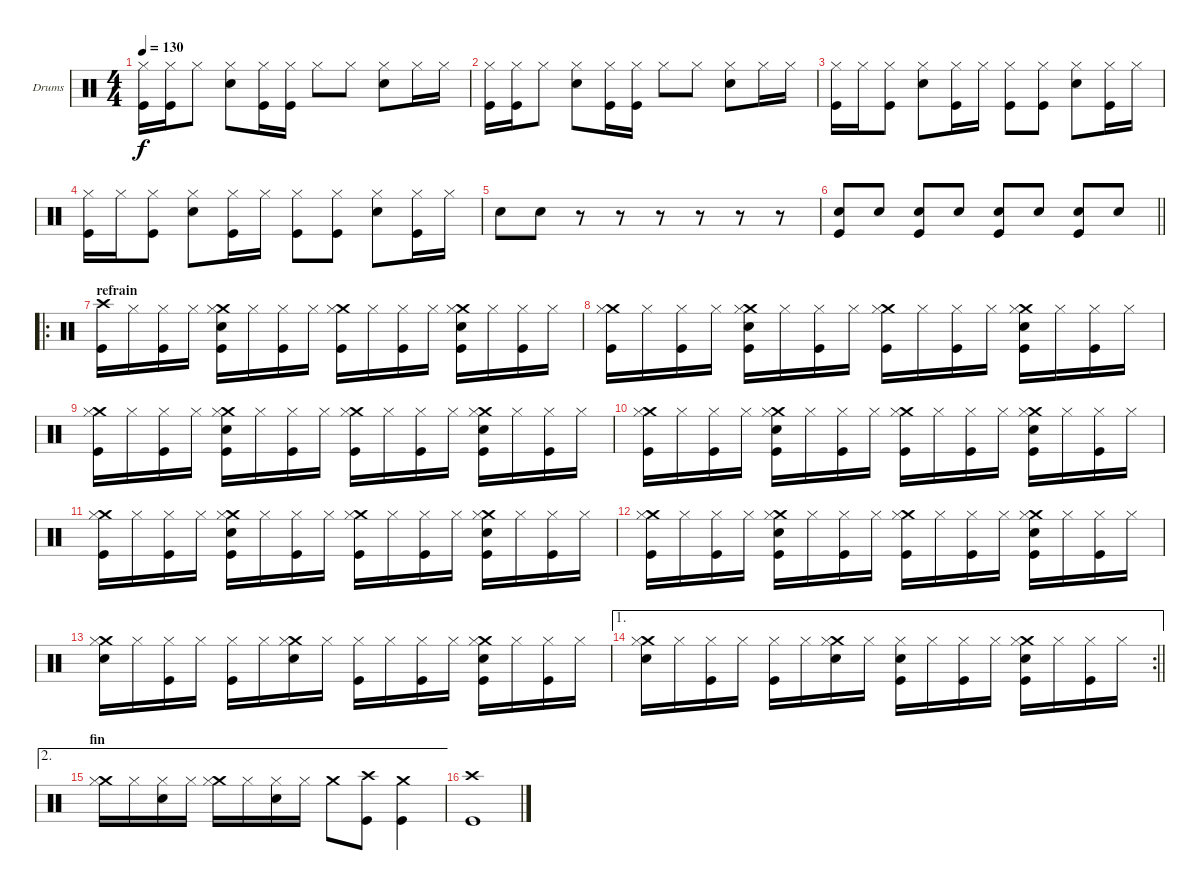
\bracketExtendMode groupsimilarinstruments
\firstSystemTrackNameOrientation horizontal
\otherSystemsTrackNameOrientation horizontal
\track ("Drumkit" "Drums") {instrument percussion}
\staff {score}
\articulation defaults
\ts (4 4)
\tempo 130
\clef neutral
\scale
0.333333
\ks c
("Hi-Hat (closed)" "Kick (hit)").16{dy f} ("Hi-Hat (closed)" "Kick (hit)").16 "Hi-Hat (closed)".8 ("Hi-Hat (closed)" "Snare (hit) 2").8 ("Hi-Hat (closed)" "Kick (hit)").16 ("Hi-Hat (closed)" "Kick (hit)").16 "Hi-Hat (closed)".8 "Hi-Hat (closed)".8 ("Hi-Hat (closed)" "Snare (hit) 2").8 "Hi-Hat (closed)".16 "Hi-Hat (closed)".16 |
\scale
0.333333 ("Hi-Hat (closed)" "Kick (hit)").16 ("Hi-Hat (closed)" "Kick (hit)").16 "Hi-Hat (closed)".8 ("Hi-Hat (closed)" "Snare (hit) 2").8 ("Hi-Hat (closed)" "Kick (hit)").16 ("Hi-Hat (closed)" "Kick (hit)").16 "Hi-Hat (closed)".8 "Hi-Hat (closed)".8 ("Hi-Hat (closed)" "Snare (hit) 2").8 "Hi-Hat (closed)".16 "Hi-Hat (closed)".16 |
\scale
0.333333 ("Hi-Hat (closed)" "Kick (hit)").16 "Hi-Hat (closed)".16 ("Hi-Hat (closed)" "Kick (hit)").8 ("Hi-Hat (closed)" "Snare (hit) 2").8 ("Hi-Hat (closed)" "Kick (hit)").16 "Hi-Hat (closed)".16 ("Hi-Hat (closed)" "Kick (hit)").8 ("Hi-Hat (closed)" "Kick (hit)").8 ("Hi-Hat (closed)" "Snare (hit) 2").8 ("Hi-Hat (closed)" "Kick (hit)").16 "Hi-Hat (closed)".16 |
\scale
0.333333 ("Hi-Hat (closed)" "Kick (hit)").16 "Hi-Hat (closed)".16 ("Hi-Hat (closed)" "Kick (hit)").8 ("Hi-Hat (closed)" "Snare (hit) 2").8 ("Hi-Hat (closed)" "Kick (hit)").16 "Hi-Hat (closed)".16 ("Hi-Hat (closed)" "Kick (hit)").8 ("Hi-Hat (closed)" "Kick (hit)").8 ("Hi-Hat (closed)" "Snare (hit) 2").8 ("Hi-Hat (closed)" "Kick (hit)").16 "Hi-Hat (closed)".16 |
\scale
0.333333 "Snare (hit) 2".8 "Snare (hit) 2".8 r.8 r.8 r.8 r.8 r.8 r.8 |
\scale
0.311111
\barLineRight lightlight
("Snare (hit) 2" "Kick (hit)").8 "Snare (hit) 2".8 ("Snare (hit) 2" "Kick (hit)").8 "Snare (hit) 2".8 ("Snare (hit) 2" "Kick (hit)").8 "Snare (hit) 2".8 ("Snare (hit) 2" "Kick (hit)").8 "Snare (hit) 2".8 |
\ro
\section ("" "refrain")
\scale
0.377778 ("Crash high (hit)" "Kick (hit)").16 "Hi-Hat (closed)".16 ("Hi-Hat (closed)" "Kick (hit)").16 "Hi-Hat (closed)".16 ("Crash medium (hit)" "Hi-Hat (closed)" "Snare (hit) 2" "Kick (hit)").16 "Hi-Hat (closed)".16 ("Hi-Hat (closed)" "Kick (hit)").16 "Hi-Hat (closed)".16 ("Crash medium (hit)" "Hi-Hat (closed)" "Kick (hit)").16 "Hi-Hat (closed)".16 ("Hi-Hat (closed)" "Kick (hit)").16 "Hi-Hat (closed)".16 ("Crash medium (hit)" "Hi-Hat (closed)" "Snare (hit) 2" "Kick (hit)").16 "Hi-Hat (closed)".16 ("Hi-Hat (closed)" "Kick (hit)").16 "Hi-Hat (closed)".16 |
\scale
0.311111 ("Crash medium (hit)" "Hi-Hat (closed)" "Kick (hit)").16 "Hi-Hat (closed)".16 ("Hi-Hat (closed)" "Kick (hit)").16 "Hi-Hat (closed)".16 ("Crash medium (hit)" "Hi-Hat (closed)" "Snare (hit) 2" "Kick (hit)").16 "Hi-Hat (closed)".16 ("Hi-Hat (closed)" "Kick (hit)").16 "Hi-Hat (closed)".16 ("Crash medium (hit)" "Hi-Hat (closed)" "Kick (hit)").16 "Hi-Hat (closed)".16 ("Hi-Hat (closed)" "Kick (hit)").16 "Hi-Hat (closed)".16 ("Crash medium (hit)" "Hi-Hat (closed)" "Snare (hit) 2" "Kick (hit)").16 "Hi-Hat (closed)".16 ("Hi-Hat (closed)" "Kick (hit)").16 "Hi-Hat (closed)".16 |
\scale
0.333333 ("Crash medium (hit)" "Hi-Hat (closed)" "Kick (hit)").16 "Hi-Hat (closed)".16 ("Hi-Hat (closed)" "Kick (hit)").16 "Hi-Hat (closed)".16 ("Crash medium (hit)" "Hi-Hat (closed)" "Snare (hit) 2" "Kick (hit)").16 "Hi-Hat (closed)".16 ("Hi-Hat (closed)" "Kick (hit)").16 "Hi-Hat (closed)".16 ("Crash medium (hit)" "Hi-Hat (closed)" "Kick (hit)").16 "Hi-Hat (closed)".16 ("Hi-Hat (closed)" "Kick (hit)").16 "Hi-Hat (closed)".16 ("Crash medium (hit)" "Hi-Hat (closed)" "Snare (hit) 2" "Kick (hit)").16 "Hi-Hat (closed)".16 ("Hi-Hat (closed)" "Kick (hit)").16 "Hi-Hat (closed)".16 |
\scale
0.333333 ("Crash medium (hit)" "Hi-Hat (closed)" "Kick (hit)").16 "Hi-Hat (closed)".16 ("Hi-Hat (closed)" "Kick (hit)").16 "Hi-Hat (closed)".16 ("Crash medium (hit)" "Hi-Hat (closed)" "Snare (hit) 2" "Kick (hit)").16 "Hi-Hat (closed)".16 ("Hi-Hat (closed)" "Kick (hit)").16 "Hi-Hat (closed)".16 ("Crash medium (hit)" "Hi-Hat (closed)" "Kick (hit)").16 "Hi-Hat (closed)".16 ("Hi-Hat (closed)" "Kick (hit)").16 "Hi-Hat (closed)".16 ("Crash medium (hit)" "Hi-Hat (closed)" "Snare (hit) 2" "Kick (hit)").16 "Hi-Hat (closed)".16 ("Hi-Hat (closed)" "Kick (hit)").16 "Hi-Hat (closed)".16 |
\scale
0.333333 ("Crash medium (hit)" "Hi-Hat (closed)" "Kick (hit)").16 "Hi-Hat (closed)".16 ("Hi-Hat (closed)" "Kick (hit)").16 "Hi-Hat (closed)".16 ("Crash medium (hit)" "Hi-Hat (closed)" "Snare (hit) 2" "Kick (hit)").16 "Hi-Hat (closed)".16 ("Hi-Hat (closed)" "Kick (hit)").16 "Hi-Hat (closed)".16 ("Crash medium (hit)" "Hi-Hat (closed)" "Kick (hit)").16 "Hi-Hat (closed)".16 ("Hi-Hat (closed)" "Kick (hit)").16 "Hi-Hat (closed)".16 ("Crash medium (hit)" "Hi-Hat (closed)" "Snare (hit) 2" "Kick (hit)").16 "Hi-Hat (closed)".16 ("Hi-Hat (closed)" "Kick (hit)").16 "Hi-Hat (closed)".16 |
\scale
0.321839 ("Crash medium (hit)" "Hi-Hat (closed)" "Kick (hit)").16 "Hi-Hat (closed)".16 ("Hi-Hat (closed)" "Kick (hit)").16 "Hi-Hat (closed)".16 ("Crash medium (hit)" "Hi-Hat (closed)" "Snare (hit) 2" "Kick (hit)").16 "Hi-Hat (closed)".16 ("Hi-Hat (closed)" "Kick (hit)").16 "Hi-Hat (closed)".16 ("Crash medium (hit)" "Hi-Hat (closed)" "Kick (hit)").16 "Hi-Hat (closed)".16 ("Hi-Hat (closed)" "Kick (hit)").16 "Hi-Hat (closed)".16 ("Crash medium (hit)" "Hi-Hat (closed)" "Snare (hit) 2" "Kick (hit)").16 "Hi-Hat (closed)".16 ("Hi-Hat (closed)" "Kick (hit)").16 "Hi-Hat (closed)".16 |
\scale
0.321839 ("Crash medium (hit)" "Hi-Hat (closed)" "Snare (hit) 2").16 "Hi-Hat (closed)".16 ("Hi-Hat (closed)" "Kick (hit)").16 "Hi-Hat (closed)".16 ("Hi-Hat (closed)" "Kick (hit)").16 "Hi-Hat (closed)".16 ("Crash medium (hit)" "Hi-Hat (closed)" "Snare (hit) 2").16 "Hi-Hat (closed)".16 ("Hi-Hat (closed)" "Kick (hit)").16 "Hi-Hat (closed)".16 ("Hi-Hat (closed)" "Kick (hit)").16 "Hi-Hat (closed)".16 ("Crash medium (hit)" "Hi-Hat (closed)" "Snare (hit) 2" "Kick (hit)").16 "Hi-Hat (closed)".16 ("Hi-Hat (closed)" "Kick (hit)").16 "Hi-Hat (closed)".16 |
\ae 1
\rc 2
\scale
0.356322
\barLineRight lightlight
("Crash medium (hit)" "Hi-Hat (closed)" "Snare (hit) 2").16 "Hi-Hat (closed)".16 ("Hi-Hat (closed)" "Kick (hit)").16 "Hi-Hat (closed)".16 ("Hi-Hat (closed)" "Kick (hit)").16 "Hi-Hat (closed)".16 ("Crash medium (hit)" "Hi-Hat (closed)" "Snare (hit) 2").16 "Hi-Hat (closed)".16 ("Hi-Hat (closed)" "Snare (hit) 2" "Kick (hit)").16 "Hi-Hat (closed)".16 ("Hi-Hat (closed)" "Kick (hit)").16 "Hi-Hat (closed)".16 ("Crash medium (hit)" "Hi-Hat (closed)" "Snare (hit) 2" "Kick (hit)").16 "Hi-Hat (closed)".16 ("Hi-Hat (closed)" "Kick (hit)").16 "Hi-Hat (closed)".16 |
\ae 2
\section ("" "fin")
\scale
0.333333 ("Crash medium (hit)" "Hi-Hat (closed)").16 "Hi-Hat (closed)".16 ("Hi-Hat (closed)" "Snare (hit) 2").16 "Hi-Hat (closed)".16 ("Crash medium (hit)" "Hi-Hat (closed)").16 "Hi-Hat (closed)".16 ("Hi-Hat (closed)" "Snare (hit) 2").16 "Hi-Hat (closed)".16 "Crash medium (hit)".8 ("Crash high (hit)" "Kick (hit)").8 ("Crash medium (hit)" "Kick (hit)").4 |
\scale
0.333333 ("Crash high (hit)" "Kick (hit)").1
